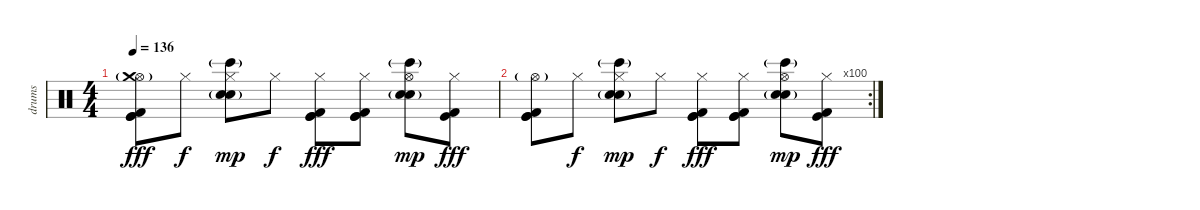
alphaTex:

\track ("drums" "drums") {instrument percussion}
\staff {score}
\articulation defaults
\ts (4 4)
\tempo 136
\clef neutral
\ks c
("Hi-Hat (open)"{g} "Crash medium (hit)"{g} "Kick (hit)" "Kick (hit)" "Kick (hit) 2").8{dy fff} "Hi-Hat (closed)".8{dy f} ("Hi-Hat (closed)" "Bongo High (hit)"{g} "Snare (hit) 2" "Electric Snare (hit)"{g}).8{dy mp} "Hi-Hat (closed)".8{dy f} ("Hi-Hat (closed)" "Kick (hit)" "Kick (hit)" "Kick (hit) 2").8{dy fff} ("Hi-Hat (closed)" "Kick (hit)" "Kick (hit)" "Kick (hit) 2").8 ("Hi-Hat (open)" "Bongo High (hit)"{g} "Snare (hit) 2" "Electric Snare (hit)"{g}).8{dy mp} ("Hi-Hat (closed)" "Kick (hit)" "Kick (hit) 2").8{dy fff} |
\rc 100
("Hi-Hat (open)"{g} "Kick (hit)" "Kick (hit)" "Kick (hit) 2").8 "Hi-Hat (closed)".8{dy f} ("Hi-Hat (closed)" "Bongo High (hit)"{g} "Snare (hit) 2" "Electric Snare (hit)"{g}).8{dy mp} "Hi-Hat (closed)".8{dy f} ("Hi-Hat (closed)" "Kick (hit)" "Kick (hit)" "Kick (hit) 2").8{dy fff} ("Hi-Hat (closed)" "Kick (hit)" "Kick (hit)" "Kick (hit) 2").8 ("Hi-Hat (open)" "Bongo High (hit)"{g} "Snare (hit) 2" "Electric Snare (hit)"{g}).8{dy mp} ("Hi-Hat (closed)" "Kick (hit)" "Kick (hit) 2").8{dy fff}
